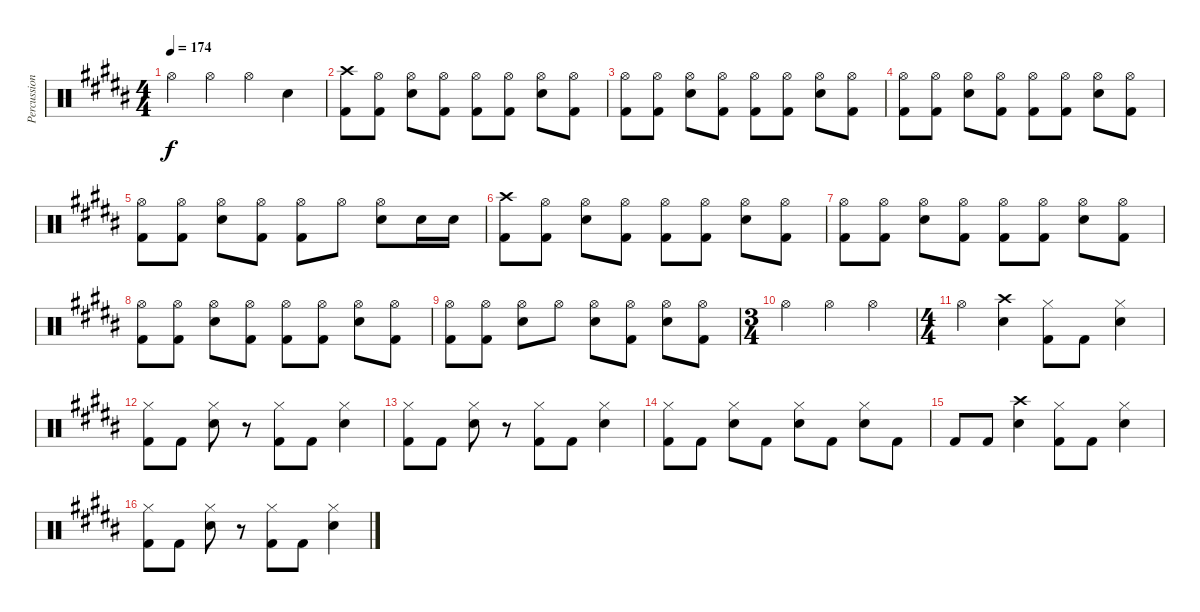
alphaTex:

\track ("Percussion" "Percussion") {instrument percussion}
\staff {score}
\articulation defaults
\ts (4 4)
\tempo 174
\clef neutral
\ks b "Hi-Hat (open)".4{dy f} "Hi-Hat (open)".4 "Hi-Hat (open)".4 "Electric Snare (hit)".4
|
("Crash high (hit)" "Kick (hit) 2").8 ("Hi-Hat (open)" "Kick (hit) 2").8 ("Hi-Hat (open)" "Electric Snare (hit)").8 ("Hi-Hat (open)" "Kick (hit) 2").8 ("Hi-Hat (open)" "Kick (hit) 2").8 ("Hi-Hat (open)" "Kick (hit) 2").8 ("Hi-Hat (open)" "Electric Snare (hit)").8 ("Hi-Hat (open)" "Kick (hit) 2").8 |
("Hi-Hat (open)" "Kick (hit) 2").8 ("Hi-Hat (open)" "Kick (hit) 2").8 ("Hi-Hat (open)" "Electric Snare (hit)").8 ("Hi-Hat (open)" "Kick (hit) 2").8 ("Hi-Hat (open)" "Kick (hit) 2").8 ("Hi-Hat (open)" "Kick (hit) 2").8 ("Hi-Hat (open)" "Electric Snare (hit)").8 ("Hi-Hat (open)" "Kick (hit) 2").8 |
("Hi-Hat (open)" "Kick (hit) 2").8 ("Hi-Hat (open)" "Kick (hit) 2").8 ("Hi-Hat (open)" "Electric Snare (hit)").8 ("Hi-Hat (open)" "Kick (hit) 2").8 ("Hi-Hat (open)" "Kick (hit) 2").8 ("Hi-Hat (open)" "Kick (hit) 2").8 ("Hi-Hat (open)" "Electric Snare (hit)").8 ("Hi-Hat (open)" "Kick (hit) 2").8 |
("Hi-Hat (open)" "Kick (hit) 2").8 ("Hi-Hat (open)" "Kick (hit) 2").8 ("Hi-Hat (open)" "Electric Snare (hit)").8 ("Hi-Hat (open)" "Kick (hit) 2").8 ("Hi-Hat (open)" "Kick (hit) 2").8 "Hi-Hat (open)".8 ("Hi-Hat (open)" "Electric Snare (hit)").8 "Electric Snare (hit)".16 "Electric Snare (hit)".16 |
("Crash high (hit)" "Kick (hit) 2").8 ("Hi-Hat (open)" "Kick (hit) 2").8 ("Hi-Hat (open)" "Electric Snare (hit)").8 ("Hi-Hat (open)" "Kick (hit) 2").8 ("Hi-Hat (open)" "Kick (hit) 2").8 ("Hi-Hat (open)" "Kick (hit) 2").8 ("Hi-Hat (open)" "Electric Snare (hit)").8 ("Hi-Hat (open)" "Kick (hit) 2").8 |
("Hi-Hat (open)" "Kick (hit) 2").8 ("Hi-Hat (open)" "Kick (hit) 2").8 ("Hi-Hat (open)" "Electric Snare (hit)").8 ("Hi-Hat (open)" "Kick (hit) 2").8 ("Hi-Hat (open)" "Kick (hit) 2").8 ("Hi-Hat (open)" "Kick (hit) 2").8 ("Hi-Hat (open)" "Electric Snare (hit)").8 ("Hi-Hat (open)" "Kick (hit) 2").8 |
("Hi-Hat (open)" "Kick (hit) 2").8 ("Hi-Hat (open)" "Kick (hit) 2").8 ("Hi-Hat (open)" "Electric Snare (hit)").8 ("Hi-Hat (open)" "Kick (hit) 2").8 ("Hi-Hat (open)" "Kick (hit) 2").8 ("Hi-Hat (open)" "Kick (hit) 2").8 ("Hi-Hat (open)" "Electric Snare (hit)").8 ("Hi-Hat (open)" "Kick (hit) 2").8 |
("Hi-Hat (open)" "Kick (hit) 2").8 ("Hi-Hat (open)" "Kick (hit) 2").8 ("Hi-Hat (open)" "Electric Snare (hit)").8 "Hi-Hat (open)".8 ("Hi-Hat (open)" "Electric Snare (hit)").8 ("Hi-Hat (open)" "Kick (hit) 2").8 ("Hi-Hat (open)" "Electric Snare (hit)").8 ("Hi-Hat (open)" "Kick (hit) 2").8 |
\ts (3 4)
"Hi-Hat (open)".4 "Hi-Hat (open)".4 "Hi-Hat (open)".4 |
\ts (4 4)
"Hi-Hat (open)".4 ("Crash high (hit)" "Electric Snare (hit)").4 ("Hi-Hat (closed)" "Kick (hit) 2").8 "Kick (hit) 2".8 ("Hi-Hat (closed)" "Electric Snare (hit)").4 |
("Hi-Hat (closed)" "Kick (hit) 2").8 "Kick (hit) 2".8 ("Hi-Hat (closed)" "Electric Snare (hit)").8 r.8 ("Hi-Hat (closed)" "Kick (hit) 2").8 "Kick (hit) 2".8 ("Hi-Hat (closed)" "Electric Snare (hit)").4 |
("Hi-Hat (closed)" "Kick (hit) 2").8 "Kick (hit) 2".8 ("Hi-Hat (closed)" "Electric Snare (hit)").8 r.8 ("Hi-Hat (closed)" "Kick (hit) 2").8 "Kick (hit) 2".8 ("Hi-Hat (closed)" "Electric Snare (hit)").4 |
("Hi-Hat (closed)" "Kick (hit) 2").8 "Kick (hit) 2".8 ("Hi-Hat (closed)" "Electric Snare (hit)").8 "Kick (hit) 2".8 ("Hi-Hat (closed)" "Electric Snare (hit)").8 "Kick (hit) 2".8 ("Hi-Hat (closed)" "Electric Snare (hit)").8 "Kick (hit) 2".8 |
"Kick (hit) 2".8 "Kick (hit) 2".8 ("Crash high (hit)" "Electric Snare (hit)").4 ("Hi-Hat (closed)" "Kick (hit) 2").8 "Kick (hit) 2".8 ("Hi-Hat (closed)" "Electric Snare (hit)").4 |
("Hi-Hat (closed)" "Kick (hit) 2").8 "Kick (hit) 2".8 ("Hi-Hat (closed)" "Electric Snare (hit)").8 r.8 ("Hi-Hat (closed)" "Kick (hit) 2").8 "Kick (hit) 2".8 ("Hi-Hat (closed)" "Electric Snare (hit)").4
